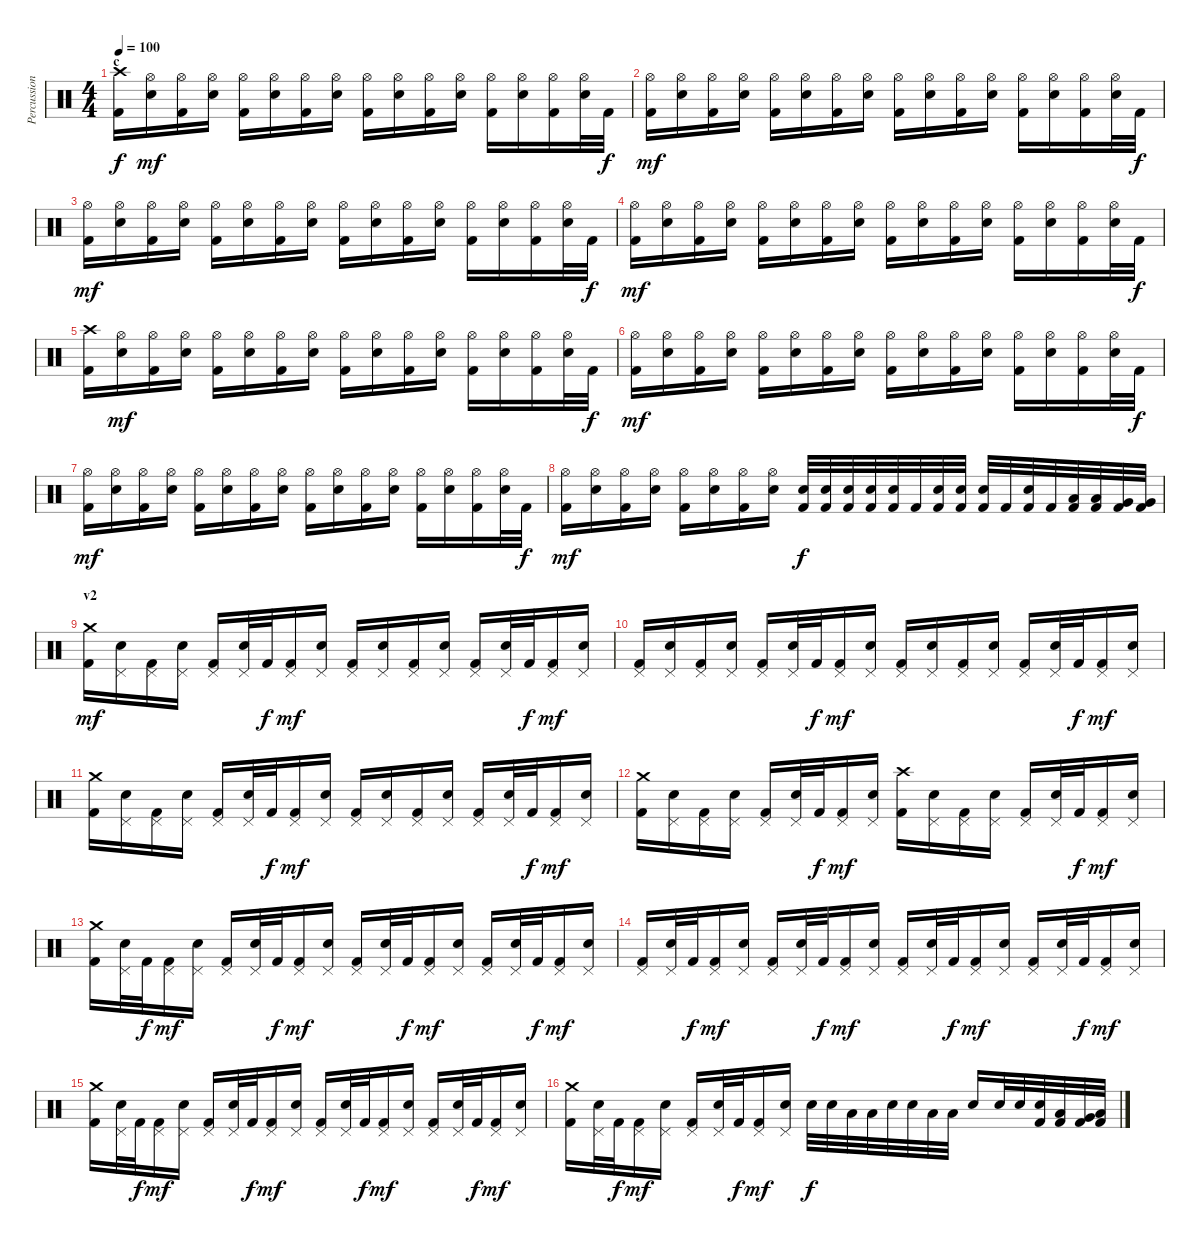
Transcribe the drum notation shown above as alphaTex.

\track ("Percussion" "Percussion") {instrument percussion}
\staff {score}
\articulation defaults
\ts (4 4)
\section ("" "c")
\tempo 100
\clef neutral
\ks c
("Crash high (hit)" "Kick (hit) 2").16{dy f} ("Hi-Hat (open)" "Electric Snare (hit)").16{dy mf} ("Hi-Hat (open)" "Kick (hit) 2").16 ("Hi-Hat (open)" "Electric Snare (hit)").16 ("Hi-Hat (open)" "Kick (hit) 2").16 ("Hi-Hat (open)" "Electric Snare (hit)").16 ("Hi-Hat (open)" "Kick (hit) 2").16 ("Hi-Hat (open)" "Electric Snare (hit)").16 ("Hi-Hat (open)" "Kick (hit) 2").16 ("Hi-Hat (open)" "Electric Snare (hit)").16 ("Hi-Hat (open)" "Kick (hit) 2").16 ("Hi-Hat (open)" "Electric Snare (hit)").16 ("Hi-Hat (open)" "Kick (hit) 2").16 ("Hi-Hat (open)" "Electric Snare (hit)").16 ("Hi-Hat (open)" "Kick (hit) 2").16 ("Hi-Hat (open)" "Electric Snare (hit)").32 "Kick (hit) 2".32{dy f} |
("Hi-Hat (open)" "Kick (hit) 2").16{dy mf} ("Hi-Hat (open)" "Electric Snare (hit)").16 ("Hi-Hat (open)" "Kick (hit) 2").16 ("Hi-Hat (open)" "Electric Snare (hit)").16 ("Hi-Hat (open)" "Kick (hit) 2").16 ("Hi-Hat (open)" "Electric Snare (hit)").16 ("Hi-Hat (open)" "Kick (hit) 2").16 ("Hi-Hat (open)" "Electric Snare (hit)").16 ("Hi-Hat (open)" "Kick (hit) 2").16 ("Hi-Hat (open)" "Electric Snare (hit)").16 ("Hi-Hat (open)" "Kick (hit) 2").16 ("Hi-Hat (open)" "Electric Snare (hit)").16 ("Hi-Hat (open)" "Kick (hit) 2").16 ("Hi-Hat (open)" "Electric Snare (hit)").16 ("Hi-Hat (open)" "Kick (hit) 2").16 ("Hi-Hat (open)" "Electric Snare (hit)").32 "Kick (hit) 2".32{dy f} |
("Hi-Hat (open)" "Kick (hit) 2").16{dy mf} ("Hi-Hat (open)" "Electric Snare (hit)").16 ("Hi-Hat (open)" "Kick (hit) 2").16 ("Hi-Hat (open)" "Electric Snare (hit)").16 ("Hi-Hat (open)" "Kick (hit) 2").16 ("Hi-Hat (open)" "Electric Snare (hit)").16 ("Hi-Hat (open)" "Kick (hit) 2").16 ("Hi-Hat (open)" "Electric Snare (hit)").16 ("Hi-Hat (open)" "Kick (hit) 2").16 ("Hi-Hat (open)" "Electric Snare (hit)").16 ("Hi-Hat (open)" "Kick (hit) 2").16 ("Hi-Hat (open)" "Electric Snare (hit)").16 ("Hi-Hat (open)" "Kick (hit) 2").16 ("Hi-Hat (open)" "Electric Snare (hit)").16 ("Hi-Hat (open)" "Kick (hit) 2").16 ("Hi-Hat (open)" "Electric Snare (hit)").32 "Kick (hit) 2".32{dy f} |
("Hi-Hat (open)" "Kick (hit) 2").16{dy mf} ("Hi-Hat (open)" "Electric Snare (hit)").16 ("Hi-Hat (open)" "Kick (hit) 2").16 ("Hi-Hat (open)" "Electric Snare (hit)").16 ("Hi-Hat (open)" "Kick (hit) 2").16 ("Hi-Hat (open)" "Electric Snare (hit)").16 ("Hi-Hat (open)" "Kick (hit) 2").16 ("Hi-Hat (open)" "Electric Snare (hit)").16 ("Hi-Hat (open)" "Kick (hit) 2").16 ("Hi-Hat (open)" "Electric Snare (hit)").16 ("Hi-Hat (open)" "Kick (hit) 2").16 ("Hi-Hat (open)" "Electric Snare (hit)").16 ("Hi-Hat (open)" "Kick (hit) 2").16 ("Hi-Hat (open)" "Electric Snare (hit)").16 ("Hi-Hat (open)" "Kick (hit) 2").16 ("Hi-Hat (open)" "Electric Snare (hit)").32 "Kick (hit) 2".32{dy f} |
("Crash high (hit)" "Kick (hit) 2").16 ("Hi-Hat (open)" "Electric Snare (hit)").16{dy mf} ("Hi-Hat (open)" "Kick (hit) 2").16 ("Hi-Hat (open)" "Electric Snare (hit)").16 ("Hi-Hat (open)" "Kick (hit) 2").16 ("Hi-Hat (open)" "Electric Snare (hit)").16 ("Hi-Hat (open)" "Kick (hit) 2").16 ("Hi-Hat (open)" "Electric Snare (hit)").16 ("Hi-Hat (open)" "Kick (hit) 2").16 ("Hi-Hat (open)" "Electric Snare (hit)").16 ("Hi-Hat (open)" "Kick (hit) 2").16 ("Hi-Hat (open)" "Electric Snare (hit)").16 ("Hi-Hat (open)" "Kick (hit) 2").16 ("Hi-Hat (open)" "Electric Snare (hit)").16 ("Hi-Hat (open)" "Kick (hit) 2").16 ("Hi-Hat (open)" "Electric Snare (hit)").32 "Kick (hit) 2".32{dy f} |
("Hi-Hat (open)" "Kick (hit) 2").16{dy mf} ("Hi-Hat (open)" "Electric Snare (hit)").16 ("Hi-Hat (open)" "Kick (hit) 2").16 ("Hi-Hat (open)" "Electric Snare (hit)").16 ("Hi-Hat (open)" "Kick (hit) 2").16 ("Hi-Hat (open)" "Electric Snare (hit)").16 ("Hi-Hat (open)" "Kick (hit) 2").16 ("Hi-Hat (open)" "Electric Snare (hit)").16 ("Hi-Hat (open)" "Kick (hit) 2").16 ("Hi-Hat (open)" "Electric Snare (hit)").16 ("Hi-Hat (open)" "Kick (hit) 2").16 ("Hi-Hat (open)" "Electric Snare (hit)").16 ("Hi-Hat (open)" "Kick (hit) 2").16 ("Hi-Hat (open)" "Electric Snare (hit)").16 ("Hi-Hat (open)" "Kick (hit) 2").16 ("Hi-Hat (open)" "Electric Snare (hit)").32 "Kick (hit) 2".32{dy f} |
("Hi-Hat (open)" "Kick (hit) 2").16{dy mf} ("Hi-Hat (open)" "Electric Snare (hit)").16 ("Hi-Hat (open)" "Kick (hit) 2").16 ("Hi-Hat (open)" "Electric Snare (hit)").16 ("Hi-Hat (open)" "Kick (hit) 2").16 ("Hi-Hat (open)" "Electric Snare (hit)").16 ("Hi-Hat (open)" "Kick (hit) 2").16 ("Hi-Hat (open)" "Electric Snare (hit)").16 ("Hi-Hat (open)" "Kick (hit) 2").16 ("Hi-Hat (open)" "Electric Snare (hit)").16 ("Hi-Hat (open)" "Kick (hit) 2").16 ("Hi-Hat (open)" "Electric Snare (hit)").16 ("Hi-Hat (open)" "Kick (hit) 2").16 ("Hi-Hat (open)" "Electric Snare (hit)").16 ("Hi-Hat (open)" "Kick (hit) 2").16 ("Hi-Hat (open)" "Electric Snare (hit)").32 "Kick (hit) 2".32{dy f} |
("Hi-Hat (open)" "Kick (hit) 2").16{dy mf} ("Hi-Hat (open)" "Electric Snare (hit)").16 ("Hi-Hat (open)" "Kick (hit) 2").16 ("Hi-Hat (open)" "Electric Snare (hit)").16 ("Hi-Hat (open)" "Kick (hit) 2").16 ("Hi-Hat (open)" "Electric Snare (hit)").16 ("Hi-Hat (open)" "Kick (hit) 2").16 ("Hi-Hat (open)" "Electric Snare (hit)").16 ("Electric Snare (hit)" "Kick (hit) 2").32{dy f} ("Electric Snare (hit)" "Kick (hit) 2").32 ("Electric Snare (hit)" "Kick (hit) 2").32 ("Electric Snare (hit)" "Kick (hit) 2").32 ("Electric Snare (hit)" "Kick (hit) 2").32 "Kick (hit) 2".32 ("Electric Snare (hit)" "Kick (hit) 2").32 ("Electric Snare (hit)" "Kick (hit) 2").32 ("Electric Snare (hit)" "Kick (hit) 2").32 "Kick (hit) 2".32 ("Electric Snare (hit)" "Kick (hit) 2").32 "Kick (hit) 2".32 ("Low Tom (hit)" "Kick (hit) 2").32 ("Low Tom (hit)" "Kick (hit) 2").32 ("Very Low Tom (hit)" "Kick (hit) 2").32 ("Very Low Tom (hit)" "Kick (hit) 2").32 |
\section ("" "v2")
("Crash medium (hit)" "Kick (hit) 2").16{dy mf} ("Pedal Hi-Hat (hit)" "Electric Snare (hit)").16 ("Pedal Hi-Hat (hit)" "Kick (hit) 2").16 ("Pedal Hi-Hat (hit)" "Electric Snare (hit)").16 ("Pedal Hi-Hat (hit)" "Kick (hit) 2").16 ("Pedal Hi-Hat (hit)" "Electric Snare (hit)").32 "Kick (hit) 2".32{dy f} ("Pedal Hi-Hat (hit)" "Kick (hit) 2").16{dy mf} ("Pedal Hi-Hat (hit)" "Electric Snare (hit)").16 ("Pedal Hi-Hat (hit)" "Kick (hit) 2").16 ("Pedal Hi-Hat (hit)" "Electric Snare (hit)").16 ("Pedal Hi-Hat (hit)" "Kick (hit) 2").16 ("Pedal Hi-Hat (hit)" "Electric Snare (hit)").16 ("Pedal Hi-Hat (hit)" "Kick (hit) 2").16 ("Pedal Hi-Hat (hit)" "Electric Snare (hit)").32 "Kick (hit) 2".32{dy f} ("Pedal Hi-Hat (hit)" "Kick (hit) 2").16{dy mf} ("Pedal Hi-Hat (hit)" "Electric Snare (hit)").16 |
("Pedal Hi-Hat (hit)" "Kick (hit) 2").16 ("Pedal Hi-Hat (hit)" "Electric Snare (hit)").16 ("Pedal Hi-Hat (hit)" "Kick (hit) 2").16 ("Pedal Hi-Hat (hit)" "Electric Snare (hit)").16 ("Pedal Hi-Hat (hit)" "Kick (hit) 2").16 ("Pedal Hi-Hat (hit)" "Electric Snare (hit)").32 "Kick (hit) 2".32{dy f} ("Pedal Hi-Hat (hit)" "Kick (hit) 2").16{dy mf} ("Pedal Hi-Hat (hit)" "Electric Snare (hit)").16 ("Pedal Hi-Hat (hit)" "Kick (hit) 2").16 ("Pedal Hi-Hat (hit)" "Electric Snare (hit)").16 ("Pedal Hi-Hat (hit)" "Kick (hit) 2").16 ("Pedal Hi-Hat (hit)" "Electric Snare (hit)").16 ("Pedal Hi-Hat (hit)" "Kick (hit) 2").16 ("Pedal Hi-Hat (hit)" "Electric Snare (hit)").32 "Kick (hit) 2".32{dy f} ("Pedal Hi-Hat (hit)" "Kick (hit) 2").16{dy mf} ("Pedal Hi-Hat (hit)" "Electric Snare (hit)").16 |
("Crash medium (hit)" "Kick (hit) 2").16 ("Pedal Hi-Hat (hit)" "Electric Snare (hit)").16 ("Pedal Hi-Hat (hit)" "Kick (hit) 2").16 ("Pedal Hi-Hat (hit)" "Electric Snare (hit)").16 ("Pedal Hi-Hat (hit)" "Kick (hit) 2").16 ("Pedal Hi-Hat (hit)" "Electric Snare (hit)").32 "Kick (hit) 2".32{dy f} ("Pedal Hi-Hat (hit)" "Kick (hit) 2").16{dy mf} ("Pedal Hi-Hat (hit)" "Electric Snare (hit)").16 ("Pedal Hi-Hat (hit)" "Kick (hit) 2").16 ("Pedal Hi-Hat (hit)" "Electric Snare (hit)").16 ("Pedal Hi-Hat (hit)" "Kick (hit) 2").16 ("Pedal Hi-Hat (hit)" "Electric Snare (hit)").16 ("Pedal Hi-Hat (hit)" "Kick (hit) 2").16 ("Pedal Hi-Hat (hit)" "Electric Snare (hit)").32 "Kick (hit) 2".32{dy f} ("Pedal Hi-Hat (hit)" "Kick (hit) 2").16{dy mf} ("Pedal Hi-Hat (hit)" "Electric Snare (hit)").16 |
("Crash medium (hit)" "Kick (hit) 2").16 ("Pedal Hi-Hat (hit)" "Electric Snare (hit)").16 ("Pedal Hi-Hat (hit)" "Kick (hit) 2").16 ("Pedal Hi-Hat (hit)" "Electric Snare (hit)").16 ("Pedal Hi-Hat (hit)" "Kick (hit) 2").16 ("Pedal Hi-Hat (hit)" "Electric Snare (hit)").32 "Kick (hit) 2".32{dy f} ("Pedal Hi-Hat (hit)" "Kick (hit) 2").16{dy mf} ("Pedal Hi-Hat (hit)" "Electric Snare (hit)").16 ("Crash high (hit)" "Kick (hit) 2").16 ("Pedal Hi-Hat (hit)" "Electric Snare (hit)").16 ("Pedal Hi-Hat (hit)" "Kick (hit) 2").16 ("Pedal Hi-Hat (hit)" "Electric Snare (hit)").16 ("Pedal Hi-Hat (hit)" "Kick (hit) 2").16 ("Pedal Hi-Hat (hit)" "Electric Snare (hit)").32 "Kick (hit) 2".32{dy f} ("Pedal Hi-Hat (hit)" "Kick (hit) 2").16{dy mf} ("Pedal Hi-Hat (hit)" "Electric Snare (hit)").16 |
("Crash medium (hit)" "Kick (hit) 2").16 ("Pedal Hi-Hat (hit)" "Electric Snare (hit)").32 "Kick (hit) 2".32{dy f} ("Pedal Hi-Hat (hit)" "Kick (hit) 2").16{dy mf} ("Pedal Hi-Hat (hit)" "Electric Snare (hit)").16 ("Pedal Hi-Hat (hit)" "Kick (hit) 2").16 ("Pedal Hi-Hat (hit)" "Electric Snare (hit)").32 "Kick (hit) 2".32{dy f} ("Pedal Hi-Hat (hit)" "Kick (hit) 2").16{dy mf} ("Pedal Hi-Hat (hit)" "Electric Snare (hit)").16 ("Pedal Hi-Hat (hit)" "Kick (hit) 2").16 ("Pedal Hi-Hat (hit)" "Electric Snare (hit)").32 "Kick (hit) 2".32{dy f} ("Pedal Hi-Hat (hit)" "Kick (hit) 2").16{dy mf} ("Pedal Hi-Hat (hit)" "Electric Snare (hit)").16 ("Pedal Hi-Hat (hit)" "Kick (hit) 2").16 ("Pedal Hi-Hat (hit)" "Electric Snare (hit)").32 "Kick (hit) 2".32{dy f} ("Pedal Hi-Hat (hit)" "Kick (hit) 2").16{dy mf} ("Pedal Hi-Hat (hit)" "Electric Snare (hit)").16 |
("Pedal Hi-Hat (hit)" "Kick (hit) 2").16 ("Pedal Hi-Hat (hit)" "Electric Snare (hit)").32 "Kick (hit) 2".32{dy f} ("Pedal Hi-Hat (hit)" "Kick (hit) 2").16{dy mf} ("Pedal Hi-Hat (hit)" "Electric Snare (hit)").16 ("Pedal Hi-Hat (hit)" "Kick (hit) 2").16 ("Pedal Hi-Hat (hit)" "Electric Snare (hit)").32 "Kick (hit) 2".32{dy f} ("Pedal Hi-Hat (hit)" "Kick (hit) 2").16{dy mf} ("Pedal Hi-Hat (hit)" "Electric Snare (hit)").16 ("Pedal Hi-Hat (hit)" "Kick (hit) 2").16 ("Pedal Hi-Hat (hit)" "Electric Snare (hit)").32 "Kick (hit) 2".32{dy f} ("Pedal Hi-Hat (hit)" "Kick (hit) 2").16{dy mf} ("Pedal Hi-Hat (hit)" "Electric Snare (hit)").16 ("Pedal Hi-Hat (hit)" "Kick (hit) 2").16 ("Pedal Hi-Hat (hit)" "Electric Snare (hit)").32 "Kick (hit) 2".32{dy f} ("Pedal Hi-Hat (hit)" "Kick (hit) 2").16{dy mf} ("Pedal Hi-Hat (hit)" "Electric Snare (hit)").16 |
("Crash medium (hit)" "Kick (hit) 2").16 ("Pedal Hi-Hat (hit)" "Electric Snare (hit)").32 "Kick (hit) 2".32{dy f} ("Pedal Hi-Hat (hit)" "Kick (hit) 2").16{dy mf} ("Pedal Hi-Hat (hit)" "Electric Snare (hit)").16 ("Pedal Hi-Hat (hit)" "Kick (hit) 2").16 ("Pedal Hi-Hat (hit)" "Electric Snare (hit)").32 "Kick (hit) 2".32{dy f} ("Pedal Hi-Hat (hit)" "Kick (hit) 2").16{dy mf} ("Pedal Hi-Hat (hit)" "Electric Snare (hit)").16 ("Pedal Hi-Hat (hit)" "Kick (hit) 2").16 ("Pedal Hi-Hat (hit)" "Electric Snare (hit)").32 "Kick (hit) 2".32{dy f} ("Pedal Hi-Hat (hit)" "Kick (hit) 2").16{dy mf} ("Pedal Hi-Hat (hit)" "Electric Snare (hit)").16 ("Pedal Hi-Hat (hit)" "Kick (hit) 2").16 ("Pedal Hi-Hat (hit)" "Electric Snare (hit)").32 "Kick (hit) 2".32{dy f} ("Pedal Hi-Hat (hit)" "Kick (hit) 2").16{dy mf} ("Pedal Hi-Hat (hit)" "Electric Snare (hit)").16 |
("Crash medium (hit)" "Kick (hit) 2").16 ("Pedal Hi-Hat (hit)" "Electric Snare (hit)").32 "Kick (hit) 2".32{dy f} ("Pedal Hi-Hat (hit)" "Kick (hit) 2").16{dy mf} ("Pedal Hi-Hat (hit)" "Electric Snare (hit)").16 ("Pedal Hi-Hat (hit)" "Kick (hit) 2").16 ("Pedal Hi-Hat (hit)" "Electric Snare (hit)").32 "Kick (hit) 2".32{dy f} ("Pedal Hi-Hat (hit)" "Kick (hit) 2").16{dy mf} ("Pedal Hi-Hat (hit)" "Electric Snare (hit)").16 "Electric Snare (hit)".32{dy f} "Electric Snare (hit)".32 "Low Tom (hit)".32 "Low Tom (hit)".32 "Electric Snare (hit)".32 "Electric Snare (hit)".32 "Low Tom (hit)".32 "Low Tom (hit)".32 "Electric Snare (hit)".16 "Electric Snare (hit)".32 "Electric Snare (hit)".32 ("Electric Snare (hit)" "Kick (hit) 2").32 ("Low Tom (hit)" "Kick (hit) 2").32 ("Very Low Tom (hit)" "Kick (hit) 2").32 ("Low Floor Tom (hit)" "Kick (hit) 2").32
